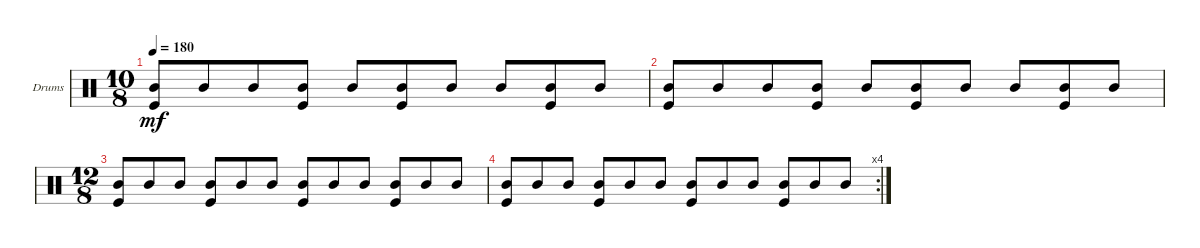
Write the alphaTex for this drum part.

\defaultSystemsLayout 4
\bracketExtendMode groupsimilarinstruments
\firstSystemTrackNameOrientation horizontal
\otherSystemsTrackNameOrientation horizontal
\track ("Drumkit" "Drums") {instrument percussion}
\staff {score}
\articulation defaults
\ts (10 8)
\tempo 180
\clef neutral
\scale
0.472222
\ks c
("Mid Tom (hit)" "Kick (hit)").8{dy mf} "Mid Tom (hit)".8 "Mid Tom (hit)".8 ("Mid Tom (hit)" "Kick (hit)").8 "Mid Tom (hit)".8 ("Mid Tom (hit)" "Kick (hit)").8 "Mid Tom (hit)".8 "Mid Tom (hit)".8 ("Mid Tom (hit)" "Kick (hit)").8 "Mid Tom (hit)".8 |
\scale
0.263889 ("Mid Tom (hit)" "Kick (hit)").8 "Mid Tom (hit)".8 "Mid Tom (hit)".8 ("Mid Tom (hit)" "Kick (hit)").8 "Mid Tom (hit)".8 ("Mid Tom (hit)" "Kick (hit)").8 "Mid Tom (hit)".8 "Mid Tom (hit)".8 ("Mid Tom (hit)" "Kick (hit)").8 "Mid Tom (hit)".8 |
\ts (12 8)
\scale
0.263889 ("Mid Tom (hit)" "Kick (hit)").8 "Mid Tom (hit)".8 "Mid Tom (hit)".8 ("Mid Tom (hit)" "Kick (hit)").8 "Mid Tom (hit)".8 "Mid Tom (hit)".8 ("Mid Tom (hit)" "Kick (hit)").8 "Mid Tom (hit)".8 "Mid Tom (hit)".8 ("Mid Tom (hit)" "Kick (hit)").8 "Mid Tom (hit)".8 "Mid Tom (hit)".8 |
\rc 4
("Mid Tom (hit)" "Kick (hit)").8 "Mid Tom (hit)".8 "Mid Tom (hit)".8 ("Mid Tom (hit)" "Kick (hit)").8 "Mid Tom (hit)".8 "Mid Tom (hit)".8 ("Mid Tom (hit)" "Kick (hit)").8 "Mid Tom (hit)".8 "Mid Tom (hit)".8 ("Mid Tom (hit)" "Kick (hit)").8 "Mid Tom (hit)".8 "Mid Tom (hit)".8
